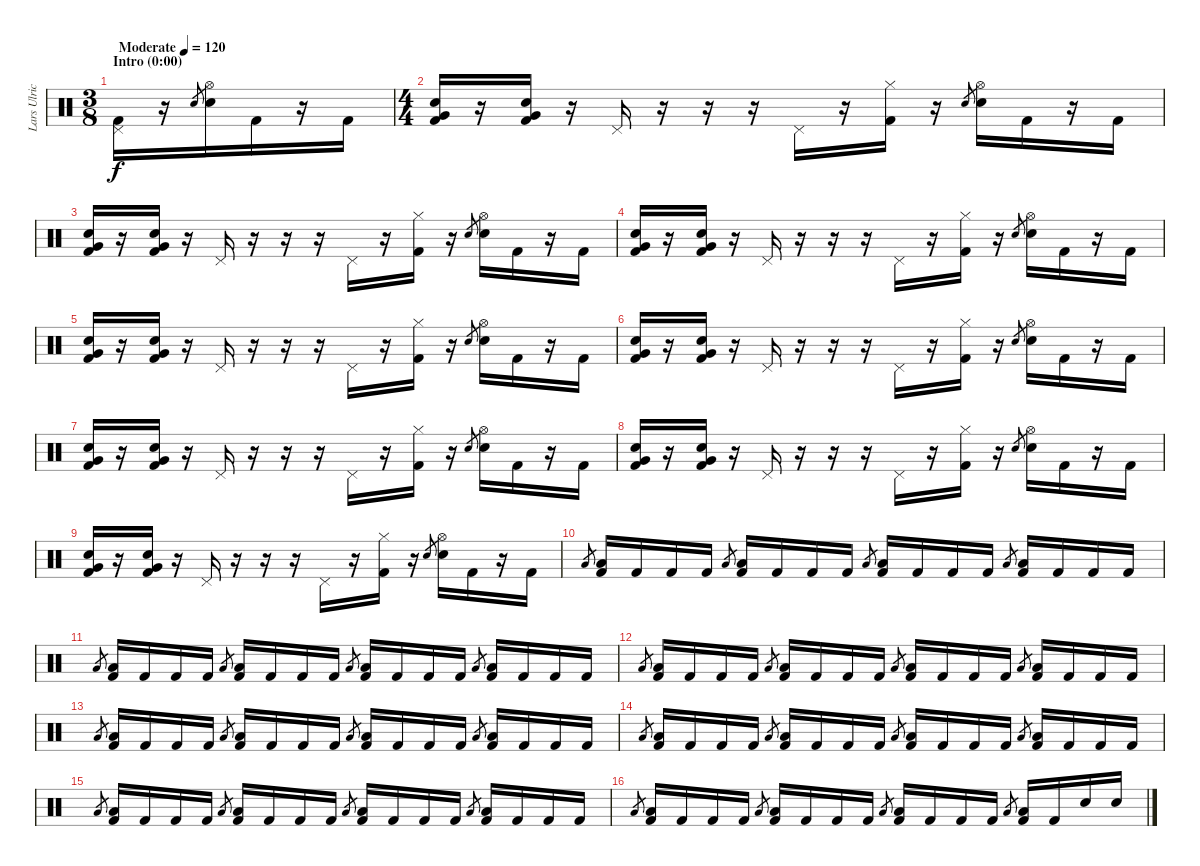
\track ("Lars Ulrich" "Lars Ulric") {instrument percussion}
\staff {score}
\articulation defaults
\ts (3 8)
\section ("" "Intro (0:00)")
\tempo (120 "Moderate")
\clef neutral
\ks c
("Pedal Hi-Hat (hit)" "Kick (hit) 2").16{dy f} r.16 "Electric Snare (hit)".8{gr} ("Electric Snare (hit)" "Hi-Hat (open)").16 "Kick (hit) 2".16 r.16 "Kick (hit) 2".16 |
\ts (4 4)
("Electric Snare (hit)" "Very Low Tom (hit)" "Kick (hit) 2").16 r.16 ("Electric Snare (hit)" "Very Low Tom (hit)" "Kick (hit) 2").16 r.16 "Pedal Hi-Hat (hit)".16 r.16 r.16 r.16 "Pedal Hi-Hat (hit)".16 r.16 ("Hi-Hat (closed)" "Kick (hit) 2").16 r.16 "Electric Snare (hit)".8{gr} ("Electric Snare (hit)" "Hi-Hat (open)").16 "Kick (hit) 2".16 r.16 "Kick (hit) 2".16 |
("Electric Snare (hit)" "Very Low Tom (hit)" "Kick (hit) 2").16 r.16 ("Electric Snare (hit)" "Very Low Tom (hit)" "Kick (hit) 2").16 r.16 "Pedal Hi-Hat (hit)".16 r.16 r.16 r.16 "Pedal Hi-Hat (hit)".16 r.16 ("Hi-Hat (closed)" "Kick (hit) 2").16 r.16 "Electric Snare (hit)".8{gr} ("Electric Snare (hit)" "Hi-Hat (open)").16 "Kick (hit) 2".16 r.16 "Kick (hit) 2".16 |
("Electric Snare (hit)" "Very Low Tom (hit)" "Kick (hit) 2").16 r.16 ("Electric Snare (hit)" "Very Low Tom (hit)" "Kick (hit) 2").16 r.16 "Pedal Hi-Hat (hit)".16 r.16 r.16 r.16 "Pedal Hi-Hat (hit)".16 r.16 ("Hi-Hat (closed)" "Kick (hit) 2").16 r.16 "Electric Snare (hit)".8{gr} ("Electric Snare (hit)" "Hi-Hat (open)").16 "Kick (hit) 2".16 r.16 "Kick (hit) 2".16 |
("Electric Snare (hit)" "Very Low Tom (hit)" "Kick (hit) 2").16 r.16 ("Electric Snare (hit)" "Very Low Tom (hit)" "Kick (hit) 2").16 r.16 "Pedal Hi-Hat (hit)".16 r.16 r.16 r.16 "Pedal Hi-Hat (hit)".16 r.16 ("Hi-Hat (closed)" "Kick (hit) 2").16 r.16 "Electric Snare (hit)".8{gr} ("Electric Snare (hit)" "Hi-Hat (open)").16 "Kick (hit) 2".16 r.16 "Kick (hit) 2".16 |
("Electric Snare (hit)" "Very Low Tom (hit)" "Kick (hit) 2").16 r.16 ("Electric Snare (hit)" "Very Low Tom (hit)" "Kick (hit) 2").16 r.16 "Pedal Hi-Hat (hit)".16 r.16 r.16 r.16 "Pedal Hi-Hat (hit)".16 r.16 ("Hi-Hat (closed)" "Kick (hit) 2").16 r.16 "Electric Snare (hit)".8{gr} ("Electric Snare (hit)" "Hi-Hat (open)").16 "Kick (hit) 2".16 r.16 "Kick (hit) 2".16 |
("Electric Snare (hit)" "Very Low Tom (hit)" "Kick (hit) 2").16 r.16 ("Electric Snare (hit)" "Very Low Tom (hit)" "Kick (hit) 2").16 r.16 "Pedal Hi-Hat (hit)".16 r.16 r.16 r.16 "Pedal Hi-Hat (hit)".16 r.16 ("Hi-Hat (closed)" "Kick (hit) 2").16 r.16 "Electric Snare (hit)".8{gr} ("Electric Snare (hit)" "Hi-Hat (open)").16 "Kick (hit) 2".16 r.16 "Kick (hit) 2".16 |
("Electric Snare (hit)" "Very Low Tom (hit)" "Kick (hit) 2").16 r.16 ("Electric Snare (hit)" "Very Low Tom (hit)" "Kick (hit) 2").16 r.16 "Pedal Hi-Hat (hit)".16 r.16 r.16 r.16 "Pedal Hi-Hat (hit)".16 r.16 ("Hi-Hat (closed)" "Kick (hit) 2").16 r.16 "Electric Snare (hit)".8{gr} ("Electric Snare (hit)" "Hi-Hat (open)").16 "Kick (hit) 2".16 r.16 "Kick (hit) 2".16 |
("Electric Snare (hit)" "Very Low Tom (hit)" "Kick (hit) 2").16 r.16 ("Electric Snare (hit)" "Very Low Tom (hit)" "Kick (hit) 2").16 r.16 "Pedal Hi-Hat (hit)".16 r.16 r.16 r.16 "Pedal Hi-Hat (hit)".16 r.16 ("Hi-Hat (closed)" "Kick (hit) 2").16 r.16 "Electric Snare (hit)".8{gr} ("Electric Snare (hit)" "Hi-Hat (open)").16 "Kick (hit) 2".16 r.16 "Kick (hit) 2".16 |
"Low Tom (hit)".8{gr} ("Low Tom (hit)" "Kick (hit) 2").16 "Kick (hit) 2".16 "Kick (hit) 2".16 "Kick (hit) 2".16 "Low Tom (hit)".8{gr} ("Low Tom (hit)" "Kick (hit) 2").16 "Kick (hit) 2".16 "Kick (hit) 2".16 "Kick (hit) 2".16 "Low Tom (hit)".8{gr} ("Low Tom (hit)" "Kick (hit) 2").16 "Kick (hit) 2".16 "Kick (hit) 2".16 "Kick (hit) 2".16 "Low Tom (hit)".8{gr} ("Low Tom (hit)" "Kick (hit) 2").16 "Kick (hit) 2".16 "Kick (hit) 2".16 "Kick (hit) 2".16 |
"Low Tom (hit)".8{gr} ("Low Tom (hit)" "Kick (hit) 2").16 "Kick (hit) 2".16 "Kick (hit) 2".16 "Kick (hit) 2".16 "Low Tom (hit)".8{gr} ("Low Tom (hit)" "Kick (hit) 2").16 "Kick (hit) 2".16 "Kick (hit) 2".16 "Kick (hit) 2".16 "Low Tom (hit)".8{gr} ("Low Tom (hit)" "Kick (hit) 2").16 "Kick (hit) 2".16 "Kick (hit) 2".16 "Kick (hit) 2".16 "Low Tom (hit)".8{gr} ("Low Tom (hit)" "Kick (hit) 2").16 "Kick (hit) 2".16 "Kick (hit) 2".16 "Kick (hit) 2".16 |
"Low Tom (hit)".8{gr} ("Low Tom (hit)" "Kick (hit) 2").16 "Kick (hit) 2".16 "Kick (hit) 2".16 "Kick (hit) 2".16 "Low Tom (hit)".8{gr} ("Low Tom (hit)" "Kick (hit) 2").16 "Kick (hit) 2".16 "Kick (hit) 2".16 "Kick (hit) 2".16 "Low Tom (hit)".8{gr} ("Low Tom (hit)" "Kick (hit) 2").16 "Kick (hit) 2".16 "Kick (hit) 2".16 "Kick (hit) 2".16 "Low Tom (hit)".8{gr} ("Low Tom (hit)" "Kick (hit) 2").16 "Kick (hit) 2".16 "Kick (hit) 2".16 "Kick (hit) 2".16 |
"Low Tom (hit)".8{gr} ("Low Tom (hit)" "Kick (hit) 2").16 "Kick (hit) 2".16 "Kick (hit) 2".16 "Kick (hit) 2".16 "Low Tom (hit)".8{gr} ("Low Tom (hit)" "Kick (hit) 2").16 "Kick (hit) 2".16 "Kick (hit) 2".16 "Kick (hit) 2".16 "Low Tom (hit)".8{gr} ("Low Tom (hit)" "Kick (hit) 2").16 "Kick (hit) 2".16 "Kick (hit) 2".16 "Kick (hit) 2".16 "Low Tom (hit)".8{gr} ("Low Tom (hit)" "Kick (hit) 2").16 "Kick (hit) 2".16 "Kick (hit) 2".16 "Kick (hit) 2".16 |
"Low Tom (hit)".8{gr} ("Low Tom (hit)" "Kick (hit) 2").16 "Kick (hit) 2".16 "Kick (hit) 2".16 "Kick (hit) 2".16 "Low Tom (hit)".8{gr} ("Low Tom (hit)" "Kick (hit) 2").16 "Kick (hit) 2".16 "Kick (hit) 2".16 "Kick (hit) 2".16 "Low Tom (hit)".8{gr} ("Low Tom (hit)" "Kick (hit) 2").16 "Kick (hit) 2".16 "Kick (hit) 2".16 "Kick (hit) 2".16 "Low Tom (hit)".8{gr} ("Low Tom (hit)" "Kick (hit) 2").16 "Kick (hit) 2".16 "Kick (hit) 2".16 "Kick (hit) 2".16 |
"Low Tom (hit)".8{gr} ("Low Tom (hit)" "Kick (hit) 2").16 "Kick (hit) 2".16 "Kick (hit) 2".16 "Kick (hit) 2".16 "Low Tom (hit)".8{gr} ("Low Tom (hit)" "Kick (hit) 2").16 "Kick (hit) 2".16 "Kick (hit) 2".16 "Kick (hit) 2".16 "Low Tom (hit)".8{gr} ("Low Tom (hit)" "Kick (hit) 2").16 "Kick (hit) 2".16 "Kick (hit) 2".16 "Kick (hit) 2".16 "Low Tom (hit)".8{gr} ("Low Tom (hit)" "Kick (hit) 2").16 "Kick (hit) 2".16 "Kick (hit) 2".16 "Kick (hit) 2".16 |
"Low Tom (hit)".8{gr} ("Low Tom (hit)" "Kick (hit) 2").16 "Kick (hit) 2".16 "Kick (hit) 2".16 "Kick (hit) 2".16 "Low Tom (hit)".8{gr} ("Low Tom (hit)" "Kick (hit) 2").16 "Kick (hit) 2".16 "Kick (hit) 2".16 "Kick (hit) 2".16 "Low Tom (hit)".8{gr} ("Low Tom (hit)" "Kick (hit) 2").16 "Kick (hit) 2".16 "Kick (hit) 2".16 "Kick (hit) 2".16 "Low Tom (hit)".8{gr} ("Low Tom (hit)" "Kick (hit) 2").16 "Kick (hit) 2".16 "Electric Snare (hit)".16 "Electric Snare (hit)".16
